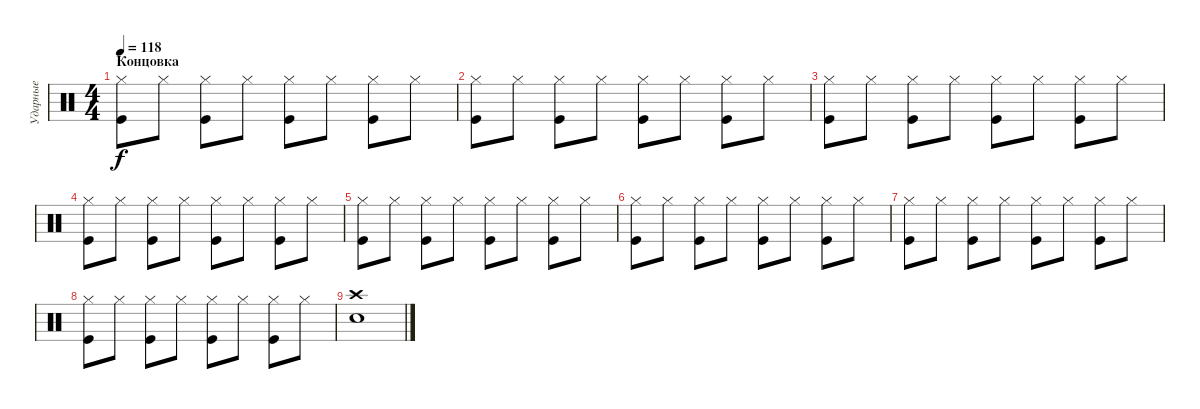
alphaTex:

\track ("Ударные" "Ударные") {instrument percussion}
\staff {score}
\articulation defaults
\ts (4 4)
\section ("" "Концовка")
\tempo 118
\clef neutral
\ks c
("Hi-Hat (closed)" "Kick (hit)").8{dy f} "Hi-Hat (closed)".8 ("Hi-Hat (closed)" "Kick (hit)").8 "Hi-Hat (closed)".8 ("Hi-Hat (closed)" "Kick (hit)").8 "Hi-Hat (closed)".8 ("Hi-Hat (closed)" "Kick (hit)").8 "Hi-Hat (closed)".8 |
("Hi-Hat (closed)" "Kick (hit)").8 "Hi-Hat (closed)".8 ("Hi-Hat (closed)" "Kick (hit)").8 "Hi-Hat (closed)".8 ("Hi-Hat (closed)" "Kick (hit)").8 "Hi-Hat (closed)".8 ("Hi-Hat (closed)" "Kick (hit)").8 "Hi-Hat (closed)".8 |
("Hi-Hat (closed)" "Kick (hit)").8 "Hi-Hat (closed)".8 ("Hi-Hat (closed)" "Kick (hit)").8 "Hi-Hat (closed)".8 ("Hi-Hat (closed)" "Kick (hit)").8 "Hi-Hat (closed)".8 ("Hi-Hat (closed)" "Kick (hit)").8 "Hi-Hat (closed)".8 |
("Hi-Hat (closed)" "Kick (hit)").8 "Hi-Hat (closed)".8 ("Hi-Hat (closed)" "Kick (hit)").8 "Hi-Hat (closed)".8 ("Hi-Hat (closed)" "Kick (hit)").8 "Hi-Hat (closed)".8 ("Hi-Hat (closed)" "Kick (hit)").8 "Hi-Hat (closed)".8 |
("Hi-Hat (closed)" "Kick (hit)").8 "Hi-Hat (closed)".8 ("Hi-Hat (closed)" "Kick (hit)").8 "Hi-Hat (closed)".8 ("Hi-Hat (closed)" "Kick (hit)").8 "Hi-Hat (closed)".8 ("Hi-Hat (closed)" "Kick (hit)").8 "Hi-Hat (closed)".8 |
("Hi-Hat (closed)" "Kick (hit)").8 "Hi-Hat (closed)".8 ("Hi-Hat (closed)" "Kick (hit)").8 "Hi-Hat (closed)".8 ("Hi-Hat (closed)" "Kick (hit)").8 "Hi-Hat (closed)".8 ("Hi-Hat (closed)" "Kick (hit)").8 "Hi-Hat (closed)".8 |
("Hi-Hat (closed)" "Kick (hit)").8 "Hi-Hat (closed)".8 ("Hi-Hat (closed)" "Kick (hit)").8 "Hi-Hat (closed)".8 ("Hi-Hat (closed)" "Kick (hit)").8 "Hi-Hat (closed)".8 ("Hi-Hat (closed)" "Kick (hit)").8 "Hi-Hat (closed)".8 |
("Hi-Hat (closed)" "Kick (hit)").8 "Hi-Hat (closed)".8 ("Hi-Hat (closed)" "Kick (hit)").8 "Hi-Hat (closed)".8 ("Hi-Hat (closed)" "Kick (hit)").8 "Hi-Hat (closed)".8 ("Hi-Hat (closed)" "Kick (hit)").8 "Hi-Hat (closed)".8 |
("Crash high (hit)" "Hand Clap (hit)").1
